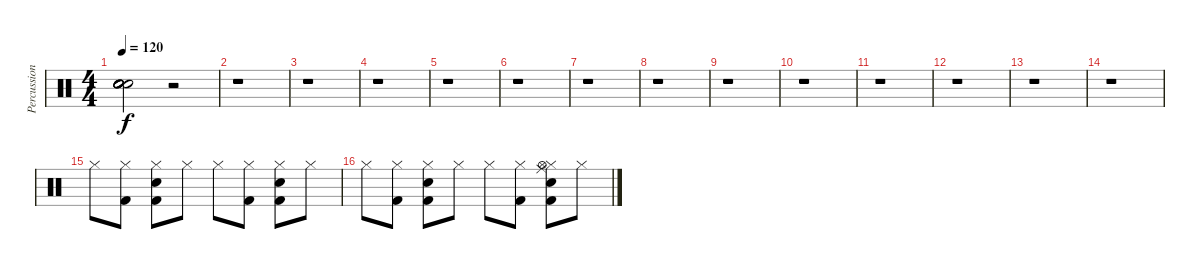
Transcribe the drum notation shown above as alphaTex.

\track ("Percussion" "Percussion") {instrument percussion}
\staff {score}
\articulation defaults
\ts (4 4)
\tempo 120
\clef neutral
\ks c
("Snare (hit)"{t} "Snare (hit)"{t} "Snare (hit)"{t} "Snare (hit)"{t} "Snare (hit)"{t} "Snare (hit)"{t}).2{dy f} r.2 |
r.1 |
r.1 |
r.1 |
r.1 |
r.1 |
r.1 |
r.1 |
r.1 |
r.1 |
r.1 |
r.1 |
r.1 |
r.1 |
"Hi-Hat (closed)".8 ("Hi-Hat (closed)" "Kick (hit) 2").8 ("Hi-Hat (closed)" "Kick (hit) 2" "Electric Snare (hit)").8 "Hi-Hat (closed)".8 "Hi-Hat (closed)".8 ("Hi-Hat (closed)" "Kick (hit) 2").8 ("Hi-Hat (closed)" "Kick (hit) 2" "Electric Snare (hit)").8 "Hi-Hat (closed)".8 |
"Hi-Hat (closed)".8 ("Hi-Hat (closed)" "Kick (hit) 2").8 ("Hi-Hat (closed)" "Kick (hit) 2" "Electric Snare (hit)").8 "Hi-Hat (closed)".8 "Hi-Hat (closed)".8 ("Hi-Hat (closed)" "Kick (hit) 2").8 ("Hi-Hat (closed)" "Hi-Hat (open)" "Ride (middle)" "Kick (hit) 2" "Electric Snare (hit)").8 "Hi-Hat (closed)".8
